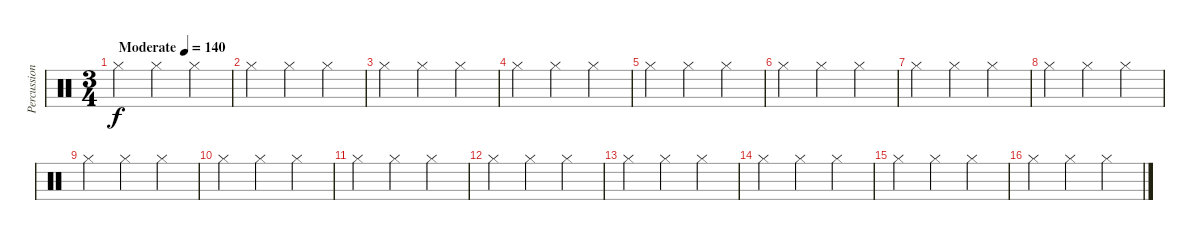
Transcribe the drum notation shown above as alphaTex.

\track ("Percussion" "Percussion") {instrument percussion}
\staff {score}
\articulation defaults
\ts (3 4)
\tempo (140 "Moderate")
\clef neutral
\ks c "Hi-Hat (closed)".4{dy f} "Hi-Hat (closed)".4 "Hi-Hat (closed)".4
|
"Hi-Hat (closed)".4 "Hi-Hat (closed)".4 "Hi-Hat (closed)".4 |
"Hi-Hat (closed)".4 "Hi-Hat (closed)".4 "Hi-Hat (closed)".4 |
"Hi-Hat (closed)".4 "Hi-Hat (closed)".4 "Hi-Hat (closed)".4 |
"Hi-Hat (closed)".4 "Hi-Hat (closed)".4 "Hi-Hat (closed)".4 |
"Hi-Hat (closed)".4 "Hi-Hat (closed)".4 "Hi-Hat (closed)".4 |
"Hi-Hat (closed)".4 "Hi-Hat (closed)".4 "Hi-Hat (closed)".4 |
"Hi-Hat (closed)".4 "Hi-Hat (closed)".4 "Hi-Hat (closed)".4 |
"Hi-Hat (closed)".4 "Hi-Hat (closed)".4 "Hi-Hat (closed)".4 |
"Hi-Hat (closed)".4 "Hi-Hat (closed)".4 "Hi-Hat (closed)".4 |
"Hi-Hat (closed)".4 "Hi-Hat (closed)".4 "Hi-Hat (closed)".4 |
"Hi-Hat (closed)".4 "Hi-Hat (closed)".4 "Hi-Hat (closed)".4 |
"Hi-Hat (closed)".4 "Hi-Hat (closed)".4 "Hi-Hat (closed)".4 |
"Hi-Hat (closed)".4 "Hi-Hat (closed)".4 "Hi-Hat (closed)".4 |
"Hi-Hat (closed)".4 "Hi-Hat (closed)".4 "Hi-Hat (closed)".4 |
"Hi-Hat (closed)".4 "Hi-Hat (closed)".4 "Hi-Hat (closed)".4
